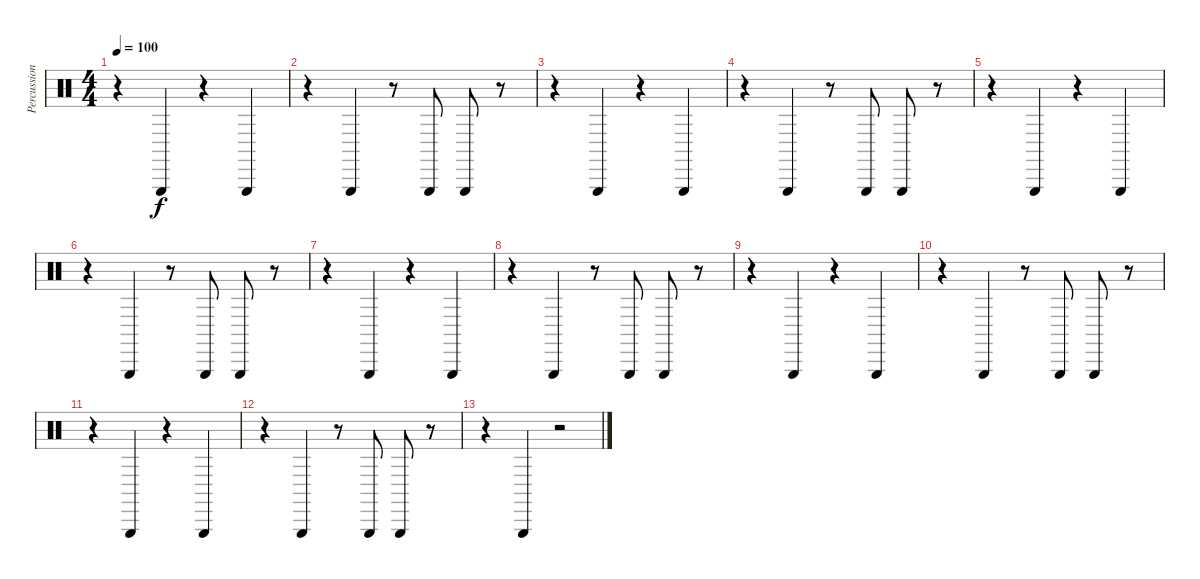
\track ("Percussion - Joe Plummer" "Percussion") {instrument percussion}
\staff {score}
\articulation defaults
\ts (4 4)
\tempo 100
\clef neutral
\ks c
r.4{dy f} "Triangle (hit)".4 r.4 "Triangle (hit)".4 |
r.4 "Triangle (hit)".4 r.8 "Triangle (hit)".8 "Triangle (hit)".8 r.8 |
r.4 "Triangle (hit)".4 r.4 "Triangle (hit)".4 |
r.4 "Triangle (hit)".4 r.8 "Triangle (hit)".8 "Triangle (hit)".8 r.8 |
r.4 "Triangle (hit)".4 r.4 "Triangle (hit)".4 |
r.4 "Triangle (hit)".4 r.8 "Triangle (hit)".8 "Triangle (hit)".8 r.8 |
r.4 "Triangle (hit)".4 r.4 "Triangle (hit)".4 |
r.4 "Triangle (hit)".4 r.8 "Triangle (hit)".8 "Triangle (hit)".8 r.8 |
r.4 "Triangle (hit)".4 r.4 "Triangle (hit)".4 |
r.4 "Triangle (hit)".4 r.8 "Triangle (hit)".8 "Triangle (hit)".8 r.8 |
r.4 "Triangle (hit)".4 r.4 "Triangle (hit)".4 |
r.4 "Triangle (hit)".4 r.8 "Triangle (hit)".8 "Triangle (hit)".8 r.8 |
r.4 "Triangle (hit)".4 r.2
